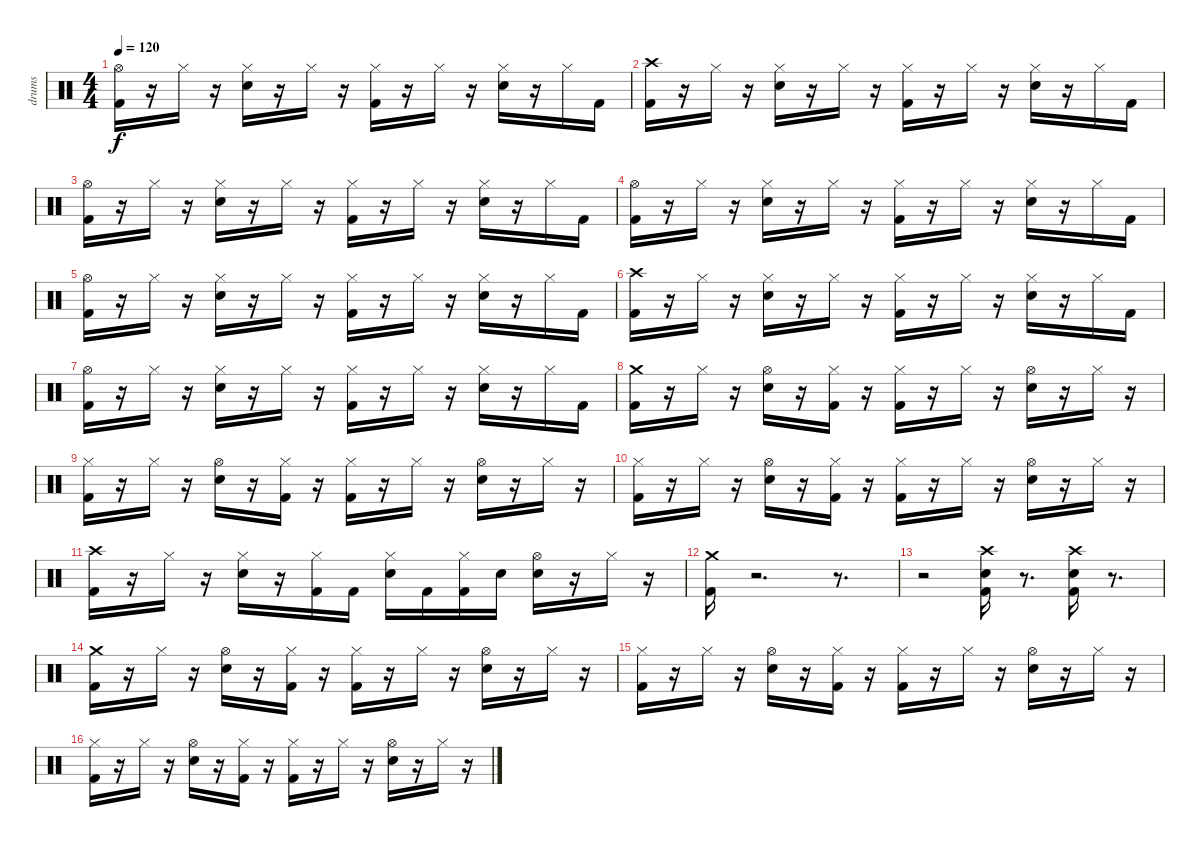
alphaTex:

\track ("drums" "drums") {instrument percussion}
\staff {score}
\articulation defaults
\ts (4 4)
\tempo 120
\clef neutral
\ks c
("Kick (hit) 2" "Hi-Hat (open)").16{dy f} r.16 "Hi-Hat (closed)".16 r.16 ("Snare (hit) 2" "Hi-Hat (closed)").16 r.16 "Hi-Hat (closed)".16 r.16 ("Hi-Hat (closed)" "Kick (hit) 2").16 r.16 "Hi-Hat (closed)".16 r.16 ("Hi-Hat (closed)" "Electric Snare (hit)").16 r.16 "Hi-Hat (closed)".16 "Kick (hit) 2".16 |
("Crash high (hit)" "Kick (hit) 2").16 r.16 "Hi-Hat (closed)".16 r.16 ("Snare (hit) 2" "Hi-Hat (closed)").16 r.16 "Hi-Hat (closed)".16 r.16 ("Kick (hit) 2" "Hi-Hat (closed)").16 r.16 "Hi-Hat (closed)".16 r.16 ("Electric Snare (hit)" "Hi-Hat (closed)").16 r.16 "Hi-Hat (closed)".16 "Kick (hit) 2".16 |
("Hi-Hat (open)" "Kick (hit) 2").16 r.16 "Hi-Hat (closed)".16 r.16 ("Snare (hit) 2" "Hi-Hat (closed)").16 r.16 "Hi-Hat (closed)".16 r.16 ("Kick (hit) 2" "Hi-Hat (closed)").16 r.16 "Hi-Hat (closed)".16 r.16 ("Snare (hit) 2" "Hi-Hat (closed)").16 r.16 "Hi-Hat (closed)".16 "Kick (hit) 2".16 |
("Hi-Hat (open)" "Kick (hit) 2").16 r.16 "Hi-Hat (closed)".16 r.16 ("Snare (hit) 2" "Hi-Hat (closed)").16 r.16 "Hi-Hat (closed)".16 r.16 ("Hi-Hat (closed)" "Kick (hit) 2").16 r.16 "Hi-Hat (closed)".16 r.16 ("Electric Snare (hit)" "Hi-Hat (closed)").16 r.16 "Hi-Hat (closed)".16 "Kick (hit) 2".16 |
("Kick (hit) 2" "Hi-Hat (open)").16 r.16 "Hi-Hat (closed)".16 r.16 ("Snare (hit) 2" "Hi-Hat (closed)").16 r.16 "Hi-Hat (closed)".16 r.16 ("Hi-Hat (closed)" "Kick (hit) 2").16 r.16 "Hi-Hat (closed)".16 r.16 ("Hi-Hat (closed)" "Electric Snare (hit)").16 r.16 "Hi-Hat (closed)".16 "Kick (hit) 2".16 |
("Crash high (hit)" "Kick (hit) 2").16 r.16 "Hi-Hat (closed)".16 r.16 ("Snare (hit) 2" "Hi-Hat (closed)").16 r.16 "Hi-Hat (closed)".16 r.16 ("Kick (hit) 2" "Hi-Hat (closed)").16 r.16 "Hi-Hat (closed)".16 r.16 ("Electric Snare (hit)" "Hi-Hat (closed)").16 r.16 "Hi-Hat (closed)".16 "Kick (hit) 2".16 |
("Hi-Hat (open)" "Kick (hit) 2").16 r.16 "Hi-Hat (closed)".16 r.16 ("Snare (hit) 2" "Hi-Hat (closed)").16 r.16 "Hi-Hat (closed)".16 r.16 ("Kick (hit) 2" "Hi-Hat (closed)").16 r.16 "Hi-Hat (closed)".16 r.16 ("Snare (hit) 2" "Hi-Hat (closed)").16 r.16 "Hi-Hat (closed)".16 "Kick (hit) 2".16 |
("Crash medium (hit)" "Kick (hit) 2").16 r.16 "Hi-Hat (closed)".16 r.16 ("Hi-Hat (open)" "Electric Snare (hit)").16 r.16 ("Hi-Hat (closed)" "Kick (hit) 2").16 r.16 ("Hi-Hat (closed)" "Kick (hit) 2").16 r.16 "Hi-Hat (closed)".16 r.16 ("Hi-Hat (open)" "Snare (hit) 2").16 r.16 "Hi-Hat (closed)".16 r.16 |
("Hi-Hat (closed)" "Kick (hit) 2").16 r.16 "Hi-Hat (closed)".16 r.16 ("Hi-Hat (open)" "Snare (hit) 2").16 r.16 ("Hi-Hat (closed)" "Kick (hit) 2").16 r.16 ("Hi-Hat (closed)" "Kick (hit) 2").16 r.16 "Hi-Hat (closed)".16 r.16 ("Hi-Hat (open)" "Snare (hit) 2").16 r.16 "Hi-Hat (closed)".16 r.16 |
("Hi-Hat (closed)" "Kick (hit) 2").16 r.16 "Hi-Hat (closed)".16 r.16 ("Hi-Hat (open)" "Snare (hit) 2").16 r.16 ("Hi-Hat (closed)" "Kick (hit) 2").16 r.16 ("Hi-Hat (closed)" "Kick (hit) 2").16 r.16 "Hi-Hat (closed)".16 r.16 ("Hi-Hat (open)" "Snare (hit) 2").16 r.16 "Hi-Hat (closed)".16 r.16 |
("Crash high (hit)" "Kick (hit) 2").16 r.16 "Hi-Hat (closed)".16 r.16 ("Hi-Hat (closed)" "Snare (hit) 2").16 r.16 ("Hi-Hat (closed)" "Kick (hit) 2").16 "Kick (hit) 2".16 ("Hi-Hat (closed)" "Electric Snare (hit)").16 "Kick (hit) 2".16 ("Hi-Hat (closed)" "Kick (hit) 2").16 "Electric Snare (hit)".16 ("Hi-Hat (open)" "Electric Snare (hit)").16 r.16 "Hi-Hat (closed)".16 r.16 |
("Crash medium (hit)" "Kick (hit) 2").16 r.2{d} r.8{d} |
r.2 ("Crash high (hit)" "Kick (hit) 2" "Electric Snare (hit)").16 r.8{d} ("Crash high (hit)" "Kick (hit) 2" "Electric Snare (hit)").16 r.8{d} |
("Crash medium (hit)" "Kick (hit) 2").16 r.16 "Hi-Hat (closed)".16 r.16 ("Hi-Hat (open)" "Electric Snare (hit)").16 r.16 ("Hi-Hat (closed)" "Kick (hit) 2").16 r.16 ("Hi-Hat (closed)" "Kick (hit) 2").16 r.16 "Hi-Hat (closed)".16 r.16 ("Hi-Hat (open)" "Snare (hit) 2").16 r.16 "Hi-Hat (closed)".16 r.16 |
("Hi-Hat (closed)" "Kick (hit) 2").16 r.16 "Hi-Hat (closed)".16 r.16 ("Hi-Hat (open)" "Snare (hit) 2").16 r.16 ("Hi-Hat (closed)" "Kick (hit) 2").16 r.16 ("Hi-Hat (closed)" "Kick (hit) 2").16 r.16 "Hi-Hat (closed)".16 r.16 ("Hi-Hat (open)" "Snare (hit) 2").16 r.16 "Hi-Hat (closed)".16 r.16 |
("Hi-Hat (closed)" "Kick (hit) 2").16 r.16 "Hi-Hat (closed)".16 r.16 ("Hi-Hat (open)" "Snare (hit) 2").16 r.16 ("Hi-Hat (closed)" "Kick (hit) 2").16 r.16 ("Hi-Hat (closed)" "Kick (hit) 2").16 r.16 "Hi-Hat (closed)".16 r.16 ("Hi-Hat (open)" "Snare (hit) 2").16 r.16 "Hi-Hat (closed)".16 r.16
